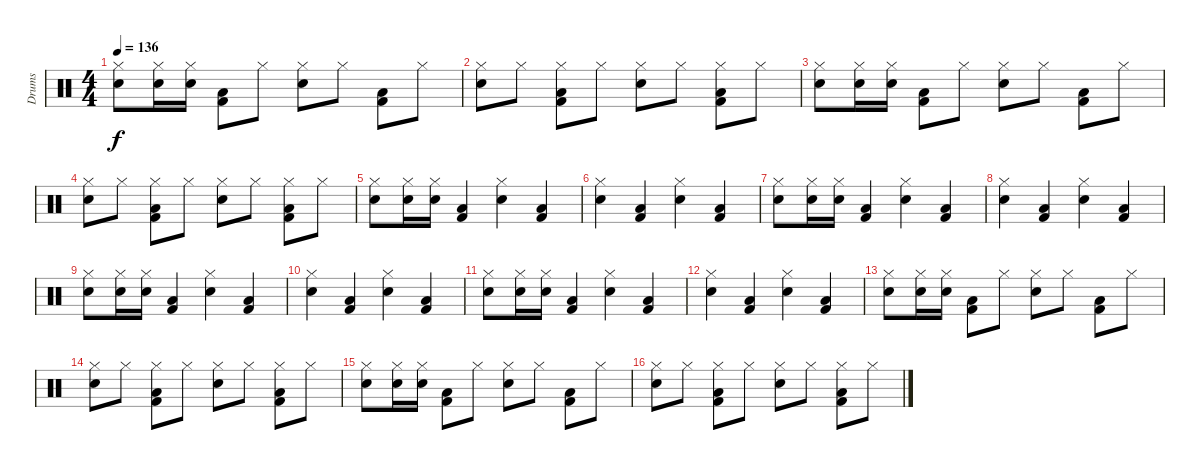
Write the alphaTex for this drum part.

\track ("Drums" "Drums") {instrument percussion}
\staff {score}
\articulation defaults
\ts (4 4)
\tempo 136
\clef neutral
\ks c
("Hi-Hat (closed)" "Snare (hit) 2").8{dy f} ("Hi-Hat (closed)" "Snare (hit) 2").16 ("Hi-Hat (closed)" "Snare (hit) 2").16 ("Kick (hit) 2" "Low Floor Tom (hit)").8 "Hi-Hat (closed)".8 ("Hi-Hat (closed)" "Snare (hit) 2").8 "Hi-Hat (closed)".8 ("Kick (hit) 2" "Low Floor Tom (hit)").8 "Hi-Hat (closed)".8 |
("Hi-Hat (closed)" "Snare (hit) 2").8 "Hi-Hat (closed)".8 ("Kick (hit) 2" "Low Floor Tom (hit)" "Hi-Hat (closed)").8 "Hi-Hat (closed)".8 ("Hi-Hat (closed)" "Snare (hit) 2").8 "Hi-Hat (closed)".8 ("Kick (hit) 2" "Low Floor Tom (hit)" "Hi-Hat (closed)").8 "Hi-Hat (closed)".8 |
("Hi-Hat (closed)" "Snare (hit) 2").8 ("Hi-Hat (closed)" "Snare (hit) 2").16 ("Hi-Hat (closed)" "Snare (hit) 2").16 ("Kick (hit) 2" "Low Floor Tom (hit)").8 "Hi-Hat (closed)".8 ("Hi-Hat (closed)" "Snare (hit) 2").8 "Hi-Hat (closed)".8 ("Kick (hit) 2" "Low Floor Tom (hit)").8 "Hi-Hat (closed)".8 |
("Hi-Hat (closed)" "Snare (hit) 2").8 "Hi-Hat (closed)".8 ("Kick (hit) 2" "Low Floor Tom (hit)" "Hi-Hat (closed)").8 "Hi-Hat (closed)".8 ("Hi-Hat (closed)" "Snare (hit) 2").8 "Hi-Hat (closed)".8 ("Kick (hit) 2" "Low Floor Tom (hit)" "Hi-Hat (closed)").8 "Hi-Hat (closed)".8 |
("Hi-Hat (closed)" "Snare (hit) 2").8 ("Hi-Hat (closed)" "Snare (hit) 2").16 ("Hi-Hat (closed)" "Snare (hit) 2").16 ("Kick (hit) 2" "Low Floor Tom (hit)").4 ("Hi-Hat (closed)" "Snare (hit) 2").4 ("Kick (hit) 2" "Low Floor Tom (hit)").4 |
("Hi-Hat (closed)" "Snare (hit) 2").4 ("Kick (hit) 2" "Low Floor Tom (hit)").4 ("Hi-Hat (closed)" "Snare (hit) 2").4 ("Kick (hit) 2" "Low Floor Tom (hit)").4 |
("Hi-Hat (closed)" "Snare (hit) 2").8 ("Hi-Hat (closed)" "Snare (hit) 2").16 ("Hi-Hat (closed)" "Snare (hit) 2").16 ("Kick (hit) 2" "Low Floor Tom (hit)").4 ("Hi-Hat (closed)" "Snare (hit) 2").4 ("Kick (hit) 2" "Low Floor Tom (hit)").4 |
("Hi-Hat (closed)" "Snare (hit) 2").4 ("Kick (hit) 2" "Low Floor Tom (hit)").4 ("Hi-Hat (closed)" "Snare (hit) 2").4 ("Kick (hit) 2" "Low Floor Tom (hit)").4 |
("Hi-Hat (closed)" "Snare (hit) 2").8 ("Hi-Hat (closed)" "Snare (hit) 2").16 ("Hi-Hat (closed)" "Snare (hit) 2").16 ("Kick (hit) 2" "Low Floor Tom (hit)").4 ("Hi-Hat (closed)" "Snare (hit) 2").4 ("Kick (hit) 2" "Low Floor Tom (hit)").4 |
("Hi-Hat (closed)" "Snare (hit) 2").4 ("Kick (hit) 2" "Low Floor Tom (hit)").4 ("Hi-Hat (closed)" "Snare (hit) 2").4 ("Kick (hit) 2" "Low Floor Tom (hit)").4 |
("Hi-Hat (closed)" "Snare (hit) 2").8 ("Hi-Hat (closed)" "Snare (hit) 2").16 ("Hi-Hat (closed)" "Snare (hit) 2").16 ("Kick (hit) 2" "Low Floor Tom (hit)").4 ("Hi-Hat (closed)" "Snare (hit) 2").4 ("Kick (hit) 2" "Low Floor Tom (hit)").4 |
("Hi-Hat (closed)" "Snare (hit) 2").4 ("Kick (hit) 2" "Low Floor Tom (hit)").4 ("Hi-Hat (closed)" "Snare (hit) 2").4 ("Kick (hit) 2" "Low Floor Tom (hit)").4 |
("Hi-Hat (closed)" "Snare (hit) 2").8 ("Hi-Hat (closed)" "Snare (hit) 2").16 ("Hi-Hat (closed)" "Snare (hit) 2").16 ("Kick (hit) 2" "Low Floor Tom (hit)").8 "Hi-Hat (closed)".8 ("Hi-Hat (closed)" "Snare (hit) 2").8 "Hi-Hat (closed)".8 ("Kick (hit) 2" "Low Floor Tom (hit)").8 "Hi-Hat (closed)".8 |
("Hi-Hat (closed)" "Snare (hit) 2").8 "Hi-Hat (closed)".8 ("Kick (hit) 2" "Low Floor Tom (hit)" "Hi-Hat (closed)").8 "Hi-Hat (closed)".8 ("Hi-Hat (closed)" "Snare (hit) 2").8 "Hi-Hat (closed)".8 ("Kick (hit) 2" "Low Floor Tom (hit)" "Hi-Hat (closed)").8 "Hi-Hat (closed)".8 |
("Hi-Hat (closed)" "Snare (hit) 2").8 ("Hi-Hat (closed)" "Snare (hit) 2").16 ("Hi-Hat (closed)" "Snare (hit) 2").16 ("Kick (hit) 2" "Low Floor Tom (hit)").8 "Hi-Hat (closed)".8 ("Hi-Hat (closed)" "Snare (hit) 2").8 "Hi-Hat (closed)".8 ("Kick (hit) 2" "Low Floor Tom (hit)").8 "Hi-Hat (closed)".8 |
("Hi-Hat (closed)" "Snare (hit) 2").8 "Hi-Hat (closed)".8 ("Kick (hit) 2" "Low Floor Tom (hit)" "Hi-Hat (closed)").8 "Hi-Hat (closed)".8 ("Hi-Hat (closed)" "Snare (hit) 2").8 "Hi-Hat (closed)".8 ("Kick (hit) 2" "Low Floor Tom (hit)" "Hi-Hat (closed)").8 "Hi-Hat (closed)".8
